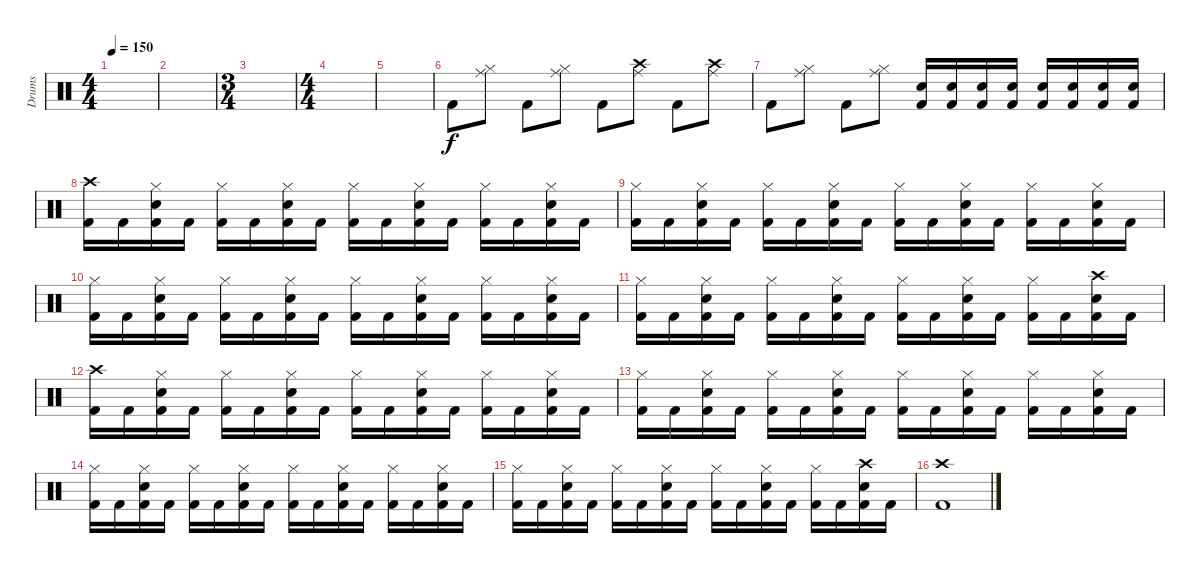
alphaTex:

\track ("Drums" "Drums") {instrument percussion}
\staff {score}
\articulation defaults
\ts (4 4)
\tempo 150
\clef neutral
\ks c
|
|
\ts (3 4)
|
\ts (4 4)
|
|
"Kick (hit) 2".8 ("Ride (middle)" "Hi-Hat (closed)").8 "Kick (hit) 2".8 ("Ride (middle)" "Hi-Hat (closed)").8 "Kick (hit) 2".8 ("Ride (middle)" "Crash high (hit)").8 "Kick (hit) 2".8 ("Ride (middle)" "Crash high (hit)").8 |
"Kick (hit) 2".8 ("Ride (middle)" "Hi-Hat (closed)").8 "Kick (hit) 2".8 ("Ride (middle)" "Hi-Hat (closed)").8 ("Electric Snare (hit)" "Kick (hit) 2").16 ("Electric Snare (hit)" "Kick (hit) 2").16 ("Electric Snare (hit)" "Kick (hit) 2").16 ("Electric Snare (hit)" "Kick (hit) 2").16 ("Electric Snare (hit)" "Kick (hit) 2").16 ("Electric Snare (hit)" "Kick (hit) 2").16 ("Electric Snare (hit)" "Kick (hit) 2").16 ("Electric Snare (hit)" "Kick (hit) 2").16 |
("Crash high (hit)" "Kick (hit) 2").16 "Kick (hit) 2".16 ("Hi-Hat (closed)" "Electric Snare (hit)" "Kick (hit) 2").16 "Kick (hit) 2".16 ("Hi-Hat (closed)" "Kick (hit) 2").16 "Kick (hit) 2".16 ("Hi-Hat (closed)" "Electric Snare (hit)" "Kick (hit) 2").16 "Kick (hit) 2".16 ("Hi-Hat (closed)" "Kick (hit) 2").16 "Kick (hit) 2".16 ("Hi-Hat (closed)" "Electric Snare (hit)" "Kick (hit) 2").16 "Kick (hit) 2".16 ("Hi-Hat (closed)" "Kick (hit) 2").16 "Kick (hit) 2".16 ("Hi-Hat (closed)" "Electric Snare (hit)" "Kick (hit) 2").16 "Kick (hit) 2".16 |
("Hi-Hat (closed)" "Kick (hit) 2").16 "Kick (hit) 2".16 ("Hi-Hat (closed)" "Electric Snare (hit)" "Kick (hit) 2").16 "Kick (hit) 2".16 ("Hi-Hat (closed)" "Kick (hit) 2").16 "Kick (hit) 2".16 ("Hi-Hat (closed)" "Electric Snare (hit)" "Kick (hit) 2").16 "Kick (hit) 2".16 ("Hi-Hat (closed)" "Kick (hit) 2").16 "Kick (hit) 2".16 ("Hi-Hat (closed)" "Electric Snare (hit)" "Kick (hit) 2").16 "Kick (hit) 2".16 ("Hi-Hat (closed)" "Kick (hit) 2").16 "Kick (hit) 2".16 ("Hi-Hat (closed)" "Electric Snare (hit)" "Kick (hit) 2").16 "Kick (hit) 2".16 |
("Hi-Hat (closed)" "Kick (hit) 2").16 "Kick (hit) 2".16 ("Hi-Hat (closed)" "Electric Snare (hit)" "Kick (hit) 2").16 "Kick (hit) 2".16 ("Hi-Hat (closed)" "Kick (hit) 2").16 "Kick (hit) 2".16 ("Hi-Hat (closed)" "Electric Snare (hit)" "Kick (hit) 2").16 "Kick (hit) 2".16 ("Hi-Hat (closed)" "Kick (hit) 2").16 "Kick (hit) 2".16 ("Hi-Hat (closed)" "Electric Snare (hit)" "Kick (hit) 2").16 "Kick (hit) 2".16 ("Hi-Hat (closed)" "Kick (hit) 2").16 "Kick (hit) 2".16 ("Hi-Hat (closed)" "Electric Snare (hit)" "Kick (hit) 2").16 "Kick (hit) 2".16 |
("Hi-Hat (closed)" "Kick (hit) 2").16 "Kick (hit) 2".16 ("Hi-Hat (closed)" "Electric Snare (hit)" "Kick (hit) 2").16 "Kick (hit) 2".16 ("Hi-Hat (closed)" "Kick (hit) 2").16 "Kick (hit) 2".16 ("Hi-Hat (closed)" "Electric Snare (hit)" "Kick (hit) 2").16 "Kick (hit) 2".16 ("Hi-Hat (closed)" "Kick (hit) 2").16 "Kick (hit) 2".16 ("Hi-Hat (closed)" "Electric Snare (hit)" "Kick (hit) 2").16 "Kick (hit) 2".16 ("Hi-Hat (closed)" "Kick (hit) 2").16 "Kick (hit) 2".16 ("Crash high (hit)" "Electric Snare (hit)" "Kick (hit) 2").16 "Kick (hit) 2".16 |
("Crash high (hit)" "Kick (hit) 2").16 "Kick (hit) 2".16 ("Hi-Hat (closed)" "Electric Snare (hit)" "Kick (hit) 2").16 "Kick (hit) 2".16 ("Hi-Hat (closed)" "Kick (hit) 2").16 "Kick (hit) 2".16 ("Hi-Hat (closed)" "Electric Snare (hit)" "Kick (hit) 2").16 "Kick (hit) 2".16 ("Hi-Hat (closed)" "Kick (hit) 2").16 "Kick (hit) 2".16 ("Hi-Hat (closed)" "Electric Snare (hit)" "Kick (hit) 2").16 "Kick (hit) 2".16 ("Hi-Hat (closed)" "Kick (hit) 2").16 "Kick (hit) 2".16 ("Hi-Hat (closed)" "Electric Snare (hit)" "Kick (hit) 2").16 "Kick (hit) 2".16 |
("Hi-Hat (closed)" "Kick (hit) 2").16 "Kick (hit) 2".16 ("Hi-Hat (closed)" "Electric Snare (hit)" "Kick (hit) 2").16 "Kick (hit) 2".16 ("Hi-Hat (closed)" "Kick (hit) 2").16 "Kick (hit) 2".16 ("Hi-Hat (closed)" "Electric Snare (hit)" "Kick (hit) 2").16 "Kick (hit) 2".16 ("Hi-Hat (closed)" "Kick (hit) 2").16 "Kick (hit) 2".16 ("Hi-Hat (closed)" "Electric Snare (hit)" "Kick (hit) 2").16 "Kick (hit) 2".16 ("Hi-Hat (closed)" "Kick (hit) 2").16 "Kick (hit) 2".16 ("Hi-Hat (closed)" "Electric Snare (hit)" "Kick (hit) 2").16 "Kick (hit) 2".16 |
("Hi-Hat (closed)" "Kick (hit) 2").16 "Kick (hit) 2".16 ("Hi-Hat (closed)" "Electric Snare (hit)" "Kick (hit) 2").16 "Kick (hit) 2".16 ("Hi-Hat (closed)" "Kick (hit) 2").16 "Kick (hit) 2".16 ("Hi-Hat (closed)" "Electric Snare (hit)" "Kick (hit) 2").16 "Kick (hit) 2".16 ("Hi-Hat (closed)" "Kick (hit) 2").16 "Kick (hit) 2".16 ("Hi-Hat (closed)" "Electric Snare (hit)" "Kick (hit) 2").16 "Kick (hit) 2".16 ("Hi-Hat (closed)" "Kick (hit) 2").16 "Kick (hit) 2".16 ("Hi-Hat (closed)" "Electric Snare (hit)" "Kick (hit) 2").16 "Kick (hit) 2".16 |
("Hi-Hat (closed)" "Kick (hit) 2").16 "Kick (hit) 2".16 ("Hi-Hat (closed)" "Electric Snare (hit)" "Kick (hit) 2").16 "Kick (hit) 2".16 ("Hi-Hat (closed)" "Kick (hit) 2").16 "Kick (hit) 2".16 ("Hi-Hat (closed)" "Electric Snare (hit)" "Kick (hit) 2").16 "Kick (hit) 2".16 ("Hi-Hat (closed)" "Kick (hit) 2").16 "Kick (hit) 2".16 ("Hi-Hat (closed)" "Electric Snare (hit)" "Kick (hit) 2").16 "Kick (hit) 2".16 ("Hi-Hat (closed)" "Kick (hit) 2").16 "Kick (hit) 2".16 ("Crash high (hit)" "Electric Snare (hit)" "Kick (hit) 2").16 "Kick (hit) 2".16 |
("Crash high (hit)" "Kick (hit) 2").1
